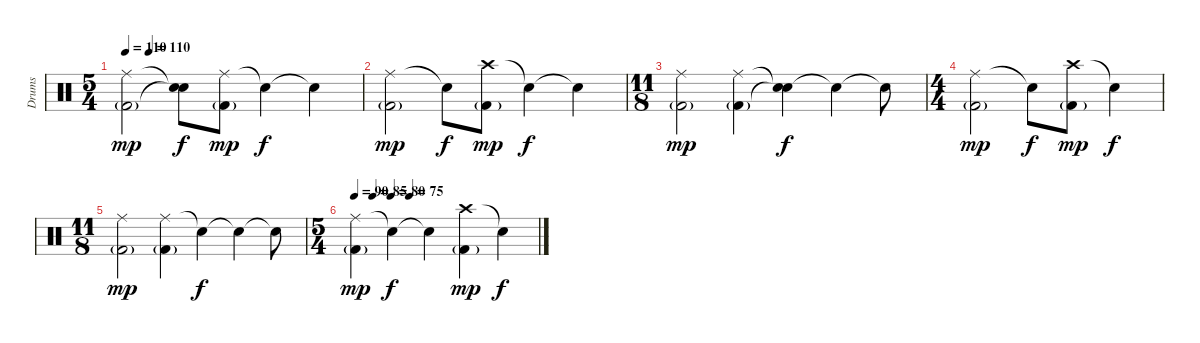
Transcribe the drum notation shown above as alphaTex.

\track ("Drums" "Drums") {instrument percussion}
\staff {score}
\articulation defaults
\ts (5 4)
\tempo 110
\tempo (110 0.1)
\clef neutral
\ks c
("Ride (middle)" "Kick (hit) 2"{g}).2{dy mp} ("Snare (hit)"{t} "Snare (hit)"{t}).8{dy f} ("Ride (middle)" "Kick (hit) 2"{g}).8{dy mp} "Snare (hit)"{t}.4{dy f} "Snare (hit)"{t}.4 |
("Ride (middle)" "Kick (hit) 2"{g}).2{dy mp} "Snare (hit)"{t}.8{dy f} ("Crash high (hit)" "Kick (hit) 2"{g}).8{dy mp} "Snare (hit)"{t}.4{dy f} "Snare (hit)"{t}.4 |
\ts (11 8)
("Ride (middle)" "Kick (hit) 2"{g}).2{dy mp} ("Ride (middle)" "Kick (hit) 2"{g}).4 ("Snare (hit)"{t} "Snare (hit)"{t}).4{dy f} "Snare (hit)"{t}.4 "Snare (hit)"{t}.8 |
\ts (4 4)
("Ride (middle)" "Kick (hit) 2"{g}).2{dy mp} "Snare (hit)"{t}.8{dy f} ("Crash high (hit)" "Kick (hit) 2"{g}).8{dy mp} "Snare (hit)"{t}.4{dy f} |
\ts (11 8)
("Ride (middle)" "Kick (hit) 2"{g}).2{dy mp} ("Ride (middle)" "Kick (hit) 2"{g}).4 "Snare (hit)"{t}.4{dy f} "Snare (hit)"{t}.4 "Snare (hit)"{t}.8 |
\ts (5 4)
\tempo 90
\tempo (85 0.1)
\tempo (80 0.2)
\tempo (75 0.3)
("Ride (middle)" "Kick (hit) 2"{g}).4{dy mp} "Snare (hit)"{t}.4{dy f} "Snare (hit)"{t}.4 ("Crash high (hit)" "Kick (hit) 2"{g}).4{dy mp} "Snare (hit)"{t}.4{dy f}
